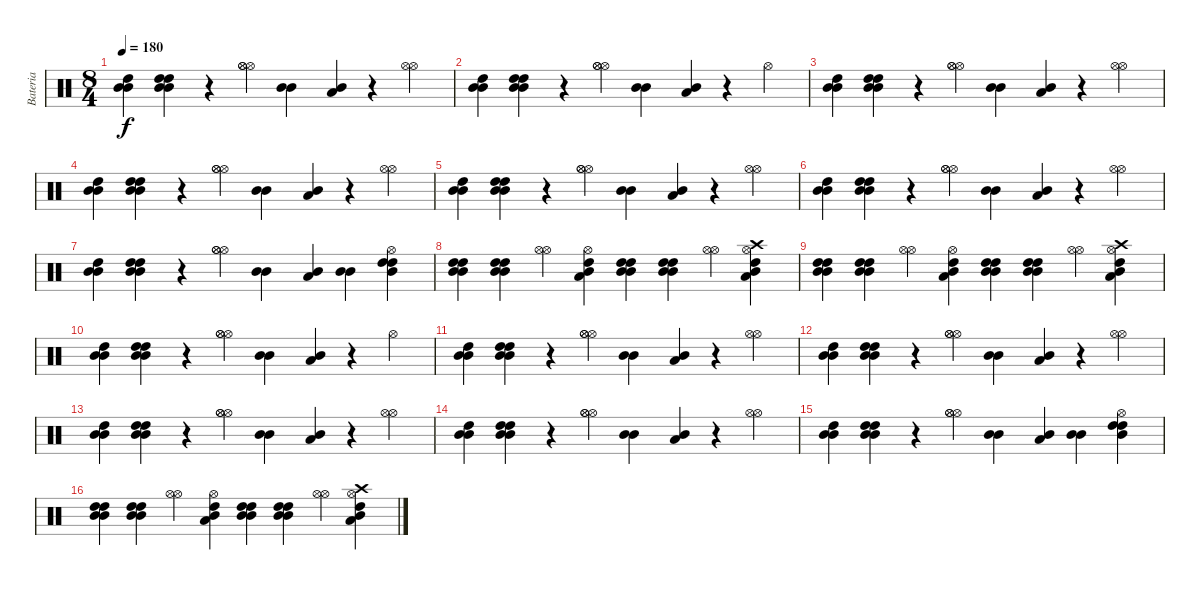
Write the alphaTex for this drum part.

\track ("Bateria" "Bateria") {instrument percussion}
\staff {score}
\articulation defaults
\ts (8 4)
\tempo 180
\clef neutral
\ks c
("High Tom (hit)" "Mid Tom (hit)" "Mid Tom (hit)").4{dy f} ("High Tom (hit)" "High Tom (hit)" "Mid Tom (hit)" "Mid Tom (hit)").4 r.4 ("Hi-Hat (open)" "Hi-Hat (open)" "Hi-Hat (open)").4 ("Mid Tom (hit)" "Mid Tom (hit)").4 ("Low Tom (hit)" "Mid Tom (hit)").4 r.4 ("Hi-Hat (open)" "Hi-Hat (open)").4 |
("High Tom (hit)" "Mid Tom (hit)" "Mid Tom (hit)").4 ("High Tom (hit)" "High Tom (hit)" "Mid Tom (hit)" "Mid Tom (hit)").4 r.4 ("Hi-Hat (open)" "Hi-Hat (open)" "Hi-Hat (open)").4 ("Mid Tom (hit)" "Mid Tom (hit)").4 ("Low Tom (hit)" "Mid Tom (hit)").4 r.4 "Hi-Hat (open)".4 |
("High Tom (hit)" "Mid Tom (hit)" "Mid Tom (hit)").4 ("High Tom (hit)" "High Tom (hit)" "Mid Tom (hit)" "Mid Tom (hit)").4 r.4 ("Hi-Hat (open)" "Hi-Hat (open)" "Hi-Hat (open)").4 ("Mid Tom (hit)" "Mid Tom (hit)").4 ("Low Tom (hit)" "Mid Tom (hit)").4 r.4 ("Hi-Hat (open)" "Hi-Hat (open)").4 |
("High Tom (hit)" "Mid Tom (hit)" "Mid Tom (hit)").4 ("High Tom (hit)" "High Tom (hit)" "Mid Tom (hit)" "Mid Tom (hit)").4 r.4 ("Hi-Hat (open)" "Hi-Hat (open)" "Hi-Hat (open)").4 ("Mid Tom (hit)" "Mid Tom (hit)").4 ("Low Tom (hit)" "Mid Tom (hit)").4 r.4 ("Hi-Hat (open)" "Hi-Hat (open)").4 |
("High Tom (hit)" "Mid Tom (hit)" "Mid Tom (hit)").4 ("High Tom (hit)" "High Tom (hit)" "Mid Tom (hit)" "Mid Tom (hit)").4 r.4 ("Hi-Hat (open)" "Hi-Hat (open)" "Hi-Hat (open)").4 ("Mid Tom (hit)" "Mid Tom (hit)").4 ("Low Tom (hit)" "Mid Tom (hit)").4 r.4 ("Hi-Hat (open)" "Hi-Hat (open)").4 |
("High Tom (hit)" "Mid Tom (hit)" "Mid Tom (hit)").4 ("High Tom (hit)" "High Tom (hit)" "Mid Tom (hit)" "Mid Tom (hit)").4 r.4 ("Hi-Hat (open)" "Hi-Hat (open)" "Hi-Hat (open)").4 ("Mid Tom (hit)" "Mid Tom (hit)").4 ("Low Tom (hit)" "Mid Tom (hit)").4 r.4 ("Hi-Hat (open)" "Hi-Hat (open)").4 |
("High Tom (hit)" "Mid Tom (hit)" "Mid Tom (hit)").4 ("High Tom (hit)" "High Tom (hit)" "Mid Tom (hit)" "Mid Tom (hit)").4 r.4 ("Hi-Hat (open)" "Hi-Hat (open)" "Hi-Hat (open)").4 ("Mid Tom (hit)" "Mid Tom (hit)").4 ("Low Tom (hit)" "Mid Tom (hit)").4 ("Mid Tom (hit)" "Mid Tom (hit)").4 ("High Tom (hit)" "Hi-Hat (open)" "High Tom (hit)" "Mid Tom (hit)").4 |
("Mid Tom (hit)" "High Tom (hit)" "Mid Tom (hit)" "High Tom (hit)").4 ("Mid Tom (hit)" "High Tom (hit)" "Mid Tom (hit)" "High Tom (hit)").4 ("Hi-Hat (open)" "Hi-Hat (open)").4 ("Low Tom (hit)" "Mid Tom (hit)" "High Tom (hit)" "Hi-Hat (open)").4 ("Mid Tom (hit)" "High Tom (hit)" "Mid Tom (hit)" "High Tom (hit)").4 ("Mid Tom (hit)" "High Tom (hit)" "Mid Tom (hit)" "High Tom (hit)").4 ("Hi-Hat (open)" "Hi-Hat (open)").4 ("Low Tom (hit)" "Mid Tom (hit)" "High Tom (hit)" "Hi-Hat (open)" "Crash high (hit)").4 |
("Mid Tom (hit)" "High Tom (hit)" "Mid Tom (hit)" "High Tom (hit)").4 ("Mid Tom (hit)" "High Tom (hit)" "Mid Tom (hit)" "High Tom (hit)").4 ("Hi-Hat (open)" "Hi-Hat (open)").4 ("Low Tom (hit)" "Mid Tom (hit)" "High Tom (hit)" "Hi-Hat (open)").4 ("Mid Tom (hit)" "High Tom (hit)" "Mid Tom (hit)" "High Tom (hit)").4 ("Mid Tom (hit)" "High Tom (hit)" "Mid Tom (hit)" "High Tom (hit)").4 ("Hi-Hat (open)" "Hi-Hat (open)").4 ("Low Tom (hit)" "Mid Tom (hit)" "High Tom (hit)" "Hi-Hat (open)" "Crash high (hit)").4 |
("High Tom (hit)" "Mid Tom (hit)" "Mid Tom (hit)").4 ("High Tom (hit)" "High Tom (hit)" "Mid Tom (hit)" "Mid Tom (hit)").4 r.4 ("Hi-Hat (open)" "Hi-Hat (open)" "Hi-Hat (open)").4 ("Mid Tom (hit)" "Mid Tom (hit)").4 ("Low Tom (hit)" "Mid Tom (hit)").4 r.4 "Hi-Hat (open)".4 |
("High Tom (hit)" "Mid Tom (hit)" "Mid Tom (hit)").4 ("High Tom (hit)" "High Tom (hit)" "Mid Tom (hit)" "Mid Tom (hit)").4 r.4 ("Hi-Hat (open)" "Hi-Hat (open)" "Hi-Hat (open)").4 ("Mid Tom (hit)" "Mid Tom (hit)").4 ("Low Tom (hit)" "Mid Tom (hit)").4 r.4 ("Hi-Hat (open)" "Hi-Hat (open)").4 |
("High Tom (hit)" "Mid Tom (hit)" "Mid Tom (hit)").4 ("High Tom (hit)" "High Tom (hit)" "Mid Tom (hit)" "Mid Tom (hit)").4 r.4 ("Hi-Hat (open)" "Hi-Hat (open)" "Hi-Hat (open)").4 ("Mid Tom (hit)" "Mid Tom (hit)").4 ("Low Tom (hit)" "Mid Tom (hit)").4 r.4 ("Hi-Hat (open)" "Hi-Hat (open)").4 |
("High Tom (hit)" "Mid Tom (hit)" "Mid Tom (hit)").4 ("High Tom (hit)" "High Tom (hit)" "Mid Tom (hit)" "Mid Tom (hit)").4 r.4 ("Hi-Hat (open)" "Hi-Hat (open)" "Hi-Hat (open)").4 ("Mid Tom (hit)" "Mid Tom (hit)").4 ("Low Tom (hit)" "Mid Tom (hit)").4 r.4 ("Hi-Hat (open)" "Hi-Hat (open)").4 |
("High Tom (hit)" "Mid Tom (hit)" "Mid Tom (hit)").4 ("High Tom (hit)" "High Tom (hit)" "Mid Tom (hit)" "Mid Tom (hit)").4 r.4 ("Hi-Hat (open)" "Hi-Hat (open)" "Hi-Hat (open)").4 ("Mid Tom (hit)" "Mid Tom (hit)").4 ("Low Tom (hit)" "Mid Tom (hit)").4 r.4 ("Hi-Hat (open)" "Hi-Hat (open)").4 |
("High Tom (hit)" "Mid Tom (hit)" "Mid Tom (hit)").4 ("High Tom (hit)" "High Tom (hit)" "Mid Tom (hit)" "Mid Tom (hit)").4 r.4 ("Hi-Hat (open)" "Hi-Hat (open)" "Hi-Hat (open)").4 ("Mid Tom (hit)" "Mid Tom (hit)").4 ("Low Tom (hit)" "Mid Tom (hit)").4 ("Mid Tom (hit)" "Mid Tom (hit)").4 ("High Tom (hit)" "Hi-Hat (open)" "High Tom (hit)" "Mid Tom (hit)").4 |
("Mid Tom (hit)" "High Tom (hit)" "Mid Tom (hit)" "High Tom (hit)").4 ("Mid Tom (hit)" "High Tom (hit)" "Mid Tom (hit)" "High Tom (hit)").4 ("Hi-Hat (open)" "Hi-Hat (open)").4 ("Low Tom (hit)" "Mid Tom (hit)" "High Tom (hit)" "Hi-Hat (open)").4 ("Mid Tom (hit)" "High Tom (hit)" "Mid Tom (hit)" "High Tom (hit)").4 ("Mid Tom (hit)" "High Tom (hit)" "Mid Tom (hit)" "High Tom (hit)").4 ("Hi-Hat (open)" "Hi-Hat (open)").4 ("Low Tom (hit)" "Mid Tom (hit)" "High Tom (hit)" "Hi-Hat (open)" "Crash high (hit)").4
